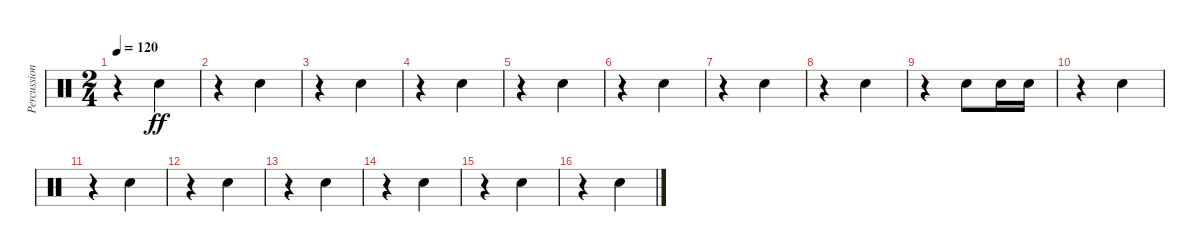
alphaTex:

\track ("Percussion" "Percussion") {instrument percussion}
\staff {score}
\articulation defaults
\ts (2 4)
\tempo 120
\clef neutral
\ks c
r.4{dy ff} "Snare (hit) 2".4 |
r.4 "Snare (hit) 2".4 |
r.4 "Snare (hit) 2".4 |
r.4 "Snare (hit) 2".4 |
r.4 "Snare (hit) 2".4 |
r.4 "Snare (hit) 2".4 |
r.4 "Snare (hit) 2".4 |
r.4 "Snare (hit) 2".4 |
r.4 "Snare (hit) 2".8 "Snare (hit) 2".16 "Snare (hit) 2".16 |
r.4 "Snare (hit) 2".4 |
r.4 "Snare (hit) 2".4 |
r.4 "Snare (hit) 2".4 |
r.4 "Snare (hit) 2".4 |
r.4 "Snare (hit) 2".4 |
r.4 "Snare (hit) 2".4 |
r.4 "Snare (hit) 2".4
